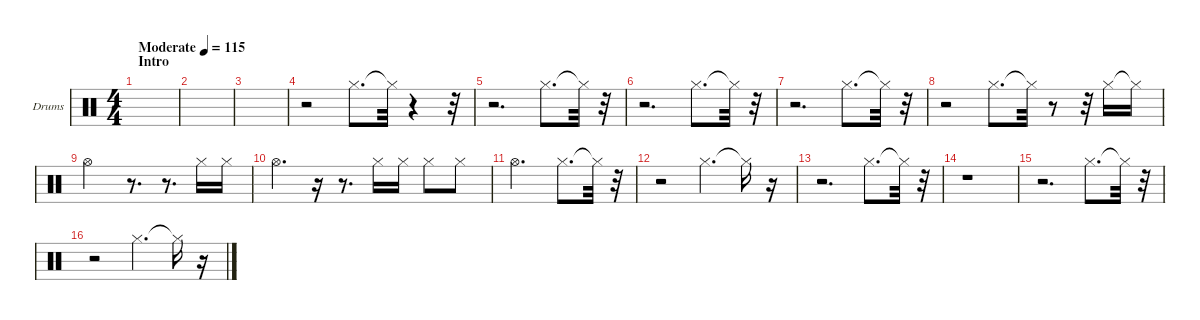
\hideDynamics
\bracketExtendMode groupsimilarinstruments
\firstSystemTrackNameOrientation horizontal
\otherSystemsTrackNameOrientation horizontal
\track ("Drumkit" "Drums") {solo instrument percussion}
\staff {score}
\articulation defaults
\ts (4 4)
\beaming (8 2 2 2 2)
\section ("" "Intro")
\tempo (115 "Moderate")
\clef neutral
\scale
0.472222
\ks c
|
\scale
0.263889 |
\scale
0.263889 |
\scale
0.333333 r.2 "Hi-Hat (closed)".8{d} "Hi-Hat (closed)"{t}.32 r.4 r.32 |
\scale
0.333333 r.2{d} "Hi-Hat (closed)".8{d} "Hi-Hat (closed)"{t}.32 r.32 |
\scale
0.333333 r.2{d} "Hi-Hat (closed)".8{d} "Hi-Hat (closed)"{t}.32 r.32 |
\scale
0.333333 r.2{d} "Hi-Hat (closed)".8{d} "Hi-Hat (closed)"{t}.32 r.32 |
\scale
0.333333 r.2 "Hi-Hat (closed)".8{d} "Hi-Hat (closed)"{t}.32 r.8 r.32 "Hi-Hat (closed)".16 "Hi-Hat (closed)"{t}.16 |
\scale
0.333333 "Hi-Hat (open)".2 r.8{d} r.8{d} "Hi-Hat (closed)".16 "Hi-Hat (closed)".16 |
\scale
0.333333 "Hi-Hat (open)".4{d} r.16 r.8{d} "Hi-Hat (closed)".16 "Hi-Hat (closed)".16 "Hi-Hat (closed)".8 "Hi-Hat (closed)".8 |
\scale
0.333333 "Hi-Hat (open)".2{d} "Hi-Hat (closed)".8{d} "Hi-Hat (closed)"{t}.32 r.32 |
\scale
0.333333 r.2 "Hi-Hat (closed)".4{d} "Hi-Hat (closed)"{t}.16 r.16 |
\scale
0.333333 r.2{d} "Hi-Hat (closed)".8{d} "Hi-Hat (closed)"{t}.32 r.32 |
\scale
0.333333 r.1 |
\scale
0.333333 r.2{d} "Hi-Hat (closed)".8{d} "Hi-Hat (closed)"{t}.32 r.32 |
\scale
0.333333 r.2 "Hi-Hat (closed)".4{d} "Hi-Hat (closed)"{t}.16 r.16
